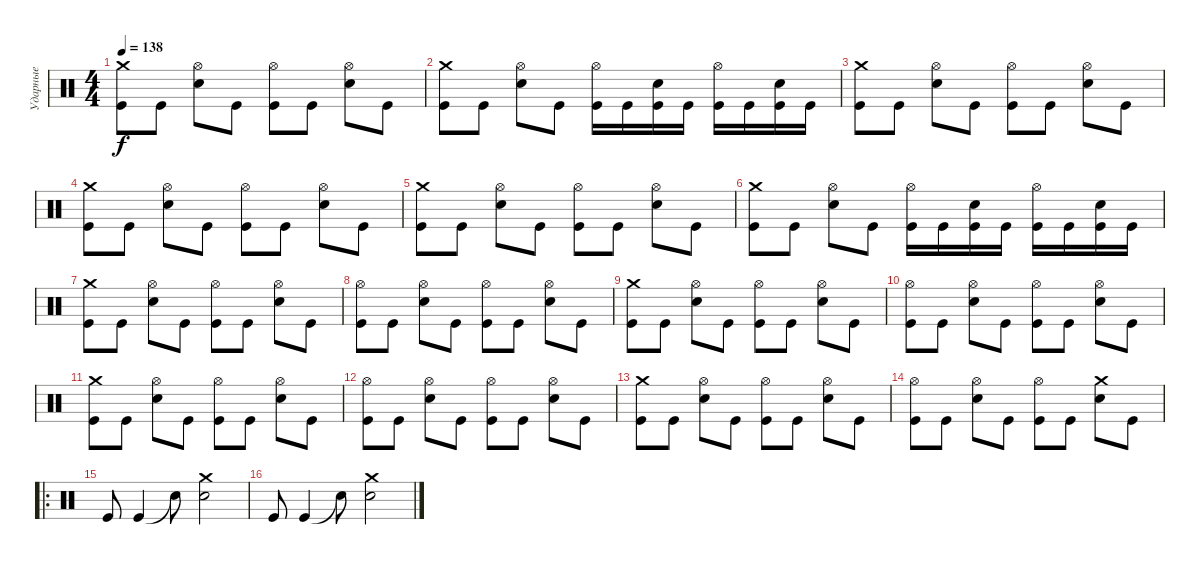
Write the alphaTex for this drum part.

\track ("Ударные" "Ударные") {instrument percussion}
\staff {score}
\articulation defaults
\ts (4 4)
\tempo 138
\clef neutral
\ks c
("Crash medium (hit)" "Kick (hit)").8{dy f} "Kick (hit)".8 ("Hi-Hat (open)" "Snare (hit) 2").8 "Kick (hit)".8 ("Hi-Hat (open)" "Kick (hit)").8 "Kick (hit)".8 ("Hi-Hat (open)" "Snare (hit) 2").8 "Kick (hit)".8 |
("Crash medium (hit)" "Kick (hit)").8 "Kick (hit)".8 ("Hi-Hat (open)" "Snare (hit) 2").8 "Kick (hit)".8 ("Hi-Hat (open)" "Kick (hit)").16 "Kick (hit)".16 ("Snare (hit) 2" "Kick (hit)").16 "Kick (hit)".16 ("Hi-Hat (open)" "Kick (hit)").16 "Kick (hit)".16 ("Snare (hit) 2" "Kick (hit)").16 "Kick (hit)".16 |
("Crash medium (hit)" "Kick (hit)").8 "Kick (hit)".8 ("Hi-Hat (open)" "Snare (hit) 2").8 "Kick (hit)".8 ("Hi-Hat (open)" "Kick (hit)").8 "Kick (hit)".8 ("Hi-Hat (open)" "Snare (hit) 2").8 "Kick (hit)".8 |
("Crash medium (hit)" "Kick (hit)").8 "Kick (hit)".8 ("Hi-Hat (open)" "Snare (hit) 2").8 "Kick (hit)".8 ("Hi-Hat (open)" "Kick (hit)").8 "Kick (hit)".8 ("Hi-Hat (open)" "Snare (hit) 2").8 "Kick (hit)".8 |
("Crash medium (hit)" "Kick (hit)").8 "Kick (hit)".8 ("Hi-Hat (open)" "Snare (hit) 2").8 "Kick (hit)".8 ("Hi-Hat (open)" "Kick (hit)").8 "Kick (hit)".8 ("Hi-Hat (open)" "Snare (hit) 2").8 "Kick (hit)".8 |
("Crash medium (hit)" "Kick (hit)").8 "Kick (hit)".8 ("Hi-Hat (open)" "Snare (hit) 2").8 "Kick (hit)".8 ("Hi-Hat (open)" "Kick (hit)").16 "Kick (hit)".16 ("Snare (hit) 2" "Kick (hit)").16 "Kick (hit)".16 ("Hi-Hat (open)" "Kick (hit)").16 "Kick (hit)".16 ("Snare (hit) 2" "Kick (hit)").16 "Kick (hit)".16 |
("Crash medium (hit)" "Kick (hit)").8 "Kick (hit)".8 ("Hi-Hat (open)" "Snare (hit) 2").8 "Kick (hit)".8 ("Hi-Hat (open)" "Kick (hit)").8 "Kick (hit)".8 ("Hi-Hat (open)" "Snare (hit) 2").8 "Kick (hit)".8 |
("Hi-Hat (open)" "Kick (hit)").8 "Kick (hit)".8 ("Hi-Hat (open)" "Snare (hit) 2").8 "Kick (hit)".8 ("Hi-Hat (open)" "Kick (hit)").8 "Kick (hit)".8 ("Hi-Hat (open)" "Snare (hit) 2").8 "Kick (hit)".8 |
("Crash medium (hit)" "Kick (hit)").8 "Kick (hit)".8 ("Hi-Hat (open)" "Snare (hit) 2").8 "Kick (hit)".8 ("Hi-Hat (open)" "Kick (hit)").8 "Kick (hit)".8 ("Hi-Hat (open)" "Snare (hit) 2").8 "Kick (hit)".8 |
("Hi-Hat (open)" "Kick (hit)").8 "Kick (hit)".8 ("Hi-Hat (open)" "Snare (hit) 2").8 "Kick (hit)".8 ("Hi-Hat (open)" "Kick (hit)").8 "Kick (hit)".8 ("Hi-Hat (open)" "Snare (hit) 2").8 "Kick (hit)".8 |
("Crash medium (hit)" "Kick (hit)").8 "Kick (hit)".8 ("Hi-Hat (open)" "Snare (hit) 2").8 "Kick (hit)".8 ("Hi-Hat (open)" "Kick (hit)").8 "Kick (hit)".8 ("Hi-Hat (open)" "Snare (hit) 2").8 "Kick (hit)".8 |
("Hi-Hat (open)" "Kick (hit)").8 "Kick (hit)".8 ("Hi-Hat (open)" "Snare (hit) 2").8 "Kick (hit)".8 ("Hi-Hat (open)" "Kick (hit)").8 "Kick (hit)".8 ("Hi-Hat (open)" "Snare (hit) 2").8 "Kick (hit)".8 |
("Crash medium (hit)" "Kick (hit)").8 "Kick (hit)".8 ("Hi-Hat (open)" "Snare (hit) 2").8 "Kick (hit)".8 ("Hi-Hat (open)" "Kick (hit)").8 "Kick (hit)".8 ("Hi-Hat (open)" "Snare (hit) 2").8 "Kick (hit)".8 |
("Hi-Hat (open)" "Kick (hit)").8 "Kick (hit)".8 ("Hi-Hat (open)" "Snare (hit) 2").8 "Kick (hit)".8 ("Hi-Hat (open)" "Kick (hit)").8 "Kick (hit)".8 ("Crash medium (hit)" "Snare (hit) 2").8 "Kick (hit)".8 |
\ro "Kick (hit)".8 "Kick (hit)".4 "Snare (hit) 2"{t}.8
("Snare (hit) 2" "Crash medium (hit)").2 |
"Kick (hit)".8 "Kick (hit)".4 "Snare (hit) 2"{t}.8 ("Snare (hit) 2" "Crash medium (hit)").2
